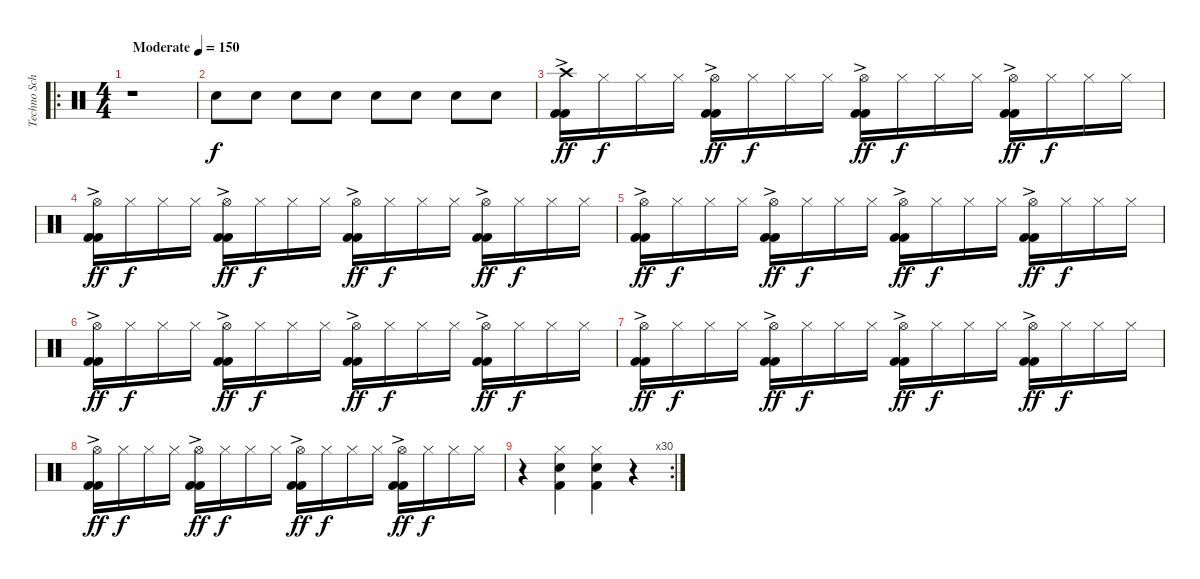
\track ("Techno Schlagzeug" "Techno Sch") {instrument percussion}
\staff {score}
\articulation defaults
\ro
\ts (4 4)
\tempo (150 "Moderate")
\clef neutral
\ks c
r.1{dy f} |
"Electric Snare (hit)".8{volume 13} "Electric Snare (hit)".8 "Electric Snare (hit)".8 "Electric Snare (hit)".8 "Electric Snare (hit)".8 "Electric Snare (hit)".8 "Electric Snare (hit)".8 "Electric Snare (hit)".8 |
("Crash high (hit)" "Kick (hit) 2"{ac} "Kick (hit) 2"{ac}).16{dy ff volume 16} "Hi-Hat (closed)".16{dy f volume 13} "Hi-Hat (closed)".16 "Hi-Hat (closed)".16 ("Hi-Hat (open)" "Kick (hit) 2"{ac} "Kick (hit) 2"{ac}).16{dy ff volume 16} "Hi-Hat (closed)".16{dy f volume 13} "Hi-Hat (closed)".16 "Hi-Hat (closed)".16 ("Hi-Hat (open)" "Kick (hit) 2"{ac} "Kick (hit) 2"{ac}).16{dy ff volume 16} "Hi-Hat (closed)".16{dy f volume 13} "Hi-Hat (closed)".16 "Hi-Hat (closed)".16 ("Hi-Hat (open)" "Kick (hit) 2"{ac} "Kick (hit) 2"{ac}).16{dy ff volume 16} "Hi-Hat (closed)".16{dy f volume 13} "Hi-Hat (closed)".16 "Hi-Hat (closed)".16 |
("Hi-Hat (open)" "Kick (hit) 2"{ac} "Kick (hit) 2"{ac}).16{dy ff volume 16} "Hi-Hat (closed)".16{dy f volume 13} "Hi-Hat (closed)".16 "Hi-Hat (closed)".16 ("Hi-Hat (open)" "Kick (hit) 2"{ac} "Kick (hit) 2"{ac}).16{dy ff volume 16} "Hi-Hat (closed)".16{dy f volume 13} "Hi-Hat (closed)".16 "Hi-Hat (closed)".16 ("Hi-Hat (open)" "Kick (hit) 2"{ac} "Kick (hit) 2"{ac}).16{dy ff volume 16} "Hi-Hat (closed)".16{dy f volume 13} "Hi-Hat (closed)".16 "Hi-Hat (closed)".16 ("Hi-Hat (open)" "Kick (hit) 2"{ac} "Kick (hit) 2"{ac}).16{dy ff volume 16} "Hi-Hat (closed)".16{dy f volume 13} "Hi-Hat (closed)".16 "Hi-Hat (closed)".16 |
("Hi-Hat (open)" "Kick (hit) 2"{ac} "Kick (hit) 2"{ac}).16{dy ff volume 16} "Hi-Hat (closed)".16{dy f volume 13} "Hi-Hat (closed)".16 "Hi-Hat (closed)".16 ("Hi-Hat (open)" "Kick (hit) 2"{ac} "Kick (hit) 2"{ac}).16{dy ff volume 16} "Hi-Hat (closed)".16{dy f volume 13} "Hi-Hat (closed)".16 "Hi-Hat (closed)".16 ("Hi-Hat (open)" "Kick (hit) 2"{ac} "Kick (hit) 2"{ac}).16{dy ff volume 16} "Hi-Hat (closed)".16{dy f volume 13} "Hi-Hat (closed)".16 "Hi-Hat (closed)".16 ("Hi-Hat (open)" "Kick (hit) 2"{ac} "Kick (hit) 2"{ac}).16{dy ff volume 16} "Hi-Hat (closed)".16{dy f volume 13} "Hi-Hat (closed)".16 "Hi-Hat (closed)".16 |
("Hi-Hat (open)" "Kick (hit) 2"{ac} "Kick (hit) 2"{ac}).16{dy ff volume 16} "Hi-Hat (closed)".16{dy f volume 13} "Hi-Hat (closed)".16 "Hi-Hat (closed)".16 ("Hi-Hat (open)" "Kick (hit) 2"{ac} "Kick (hit) 2"{ac}).16{dy ff volume 16} "Hi-Hat (closed)".16{dy f volume 13} "Hi-Hat (closed)".16 "Hi-Hat (closed)".16 ("Hi-Hat (open)" "Kick (hit) 2"{ac} "Kick (hit) 2"{ac}).16{dy ff volume 16} "Hi-Hat (closed)".16{dy f volume 13} "Hi-Hat (closed)".16 "Hi-Hat (closed)".16 ("Hi-Hat (open)" "Kick (hit) 2"{ac} "Kick (hit) 2"{ac}).16{dy ff volume 16} "Hi-Hat (closed)".16{dy f volume 13} "Hi-Hat (closed)".16 "Hi-Hat (closed)".16 |
("Hi-Hat (open)" "Kick (hit) 2"{ac} "Kick (hit) 2"{ac}).16{dy ff volume 16} "Hi-Hat (closed)".16{dy f volume 13} "Hi-Hat (closed)".16 "Hi-Hat (closed)".16 ("Hi-Hat (open)" "Kick (hit) 2"{ac} "Kick (hit) 2"{ac}).16{dy ff volume 16} "Hi-Hat (closed)".16{dy f volume 13} "Hi-Hat (closed)".16 "Hi-Hat (closed)".16 ("Hi-Hat (open)" "Kick (hit) 2"{ac} "Kick (hit) 2"{ac}).16{dy ff volume 16} "Hi-Hat (closed)".16{dy f volume 13} "Hi-Hat (closed)".16 "Hi-Hat (closed)".16 ("Hi-Hat (open)" "Kick (hit) 2"{ac} "Kick (hit) 2"{ac}).16{dy ff volume 16} "Hi-Hat (closed)".16{dy f volume 13} "Hi-Hat (closed)".16 "Hi-Hat (closed)".16 |
("Hi-Hat (open)" "Kick (hit) 2"{ac} "Kick (hit) 2"{ac}).16{dy ff volume 16} "Hi-Hat (closed)".16{dy f volume 13} "Hi-Hat (closed)".16 "Hi-Hat (closed)".16 ("Hi-Hat (open)" "Kick (hit) 2"{ac} "Kick (hit) 2"{ac}).16{dy ff volume 16} "Hi-Hat (closed)".16{dy f volume 13} "Hi-Hat (closed)".16 "Hi-Hat (closed)".16 ("Hi-Hat (open)" "Kick (hit) 2"{ac} "Kick (hit) 2"{ac}).16{dy ff volume 16} "Hi-Hat (closed)".16{dy f volume 13} "Hi-Hat (closed)".16 "Hi-Hat (closed)".16 ("Hi-Hat (open)" "Kick (hit) 2"{ac} "Kick (hit) 2"{ac}).16{dy ff volume 16} "Hi-Hat (closed)".16{dy f volume 13} "Hi-Hat (closed)".16 "Hi-Hat (closed)".16 |
\rc 30
r.4 ("Hi-Hat (closed)" "Electric Snare (hit)" "Kick (hit) 2").4 ("Hi-Hat (closed)" "Electric Snare (hit)" "Kick (hit) 2").4 r.4
